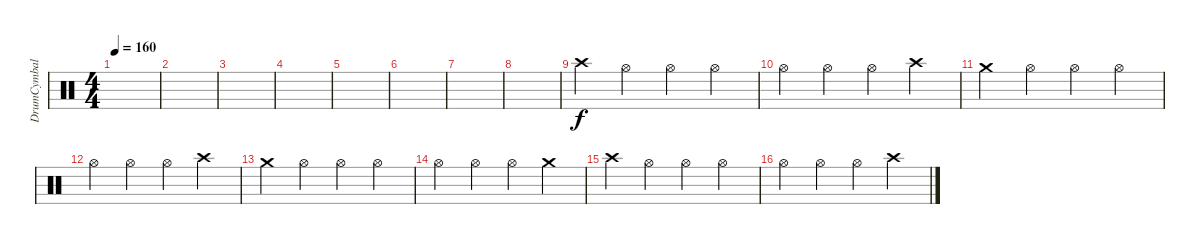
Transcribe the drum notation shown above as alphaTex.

\track ("DrumCymbal" "DrumCymbal") {instrument percussion}
\staff {score}
\articulation defaults
\ts (4 4)
\tempo 160
\clef neutral
\ks c
|
|
|
|
|
|
|
|
"Crash high (hit)".4 "Hi-Hat (open)".4 "Hi-Hat (open)".4 "Hi-Hat (open)".4 |
"Hi-Hat (open)".4 "Hi-Hat (open)".4 "Hi-Hat (open)".4 "Crash high (hit)".4 |
"Crash medium (hit)".4 "Hi-Hat (open)".4 "Hi-Hat (open)".4 "Hi-Hat (open)".4 |
"Hi-Hat (open)".4 "Hi-Hat (open)".4 "Hi-Hat (open)".4 "Crash high (hit)".4 |
"Crash medium (hit)".4 "Hi-Hat (open)".4 "Hi-Hat (open)".4 "Hi-Hat (open)".4 |
"Hi-Hat (open)".4 "Hi-Hat (open)".4 "Hi-Hat (open)".4 "Crash medium (hit)".4 |
"Crash high (hit)".4 "Hi-Hat (open)".4 "Hi-Hat (open)".4 "Hi-Hat (open)".4 |
"Hi-Hat (open)".4 "Hi-Hat (open)".4 "Hi-Hat (open)".4 "Crash high (hit)".4
